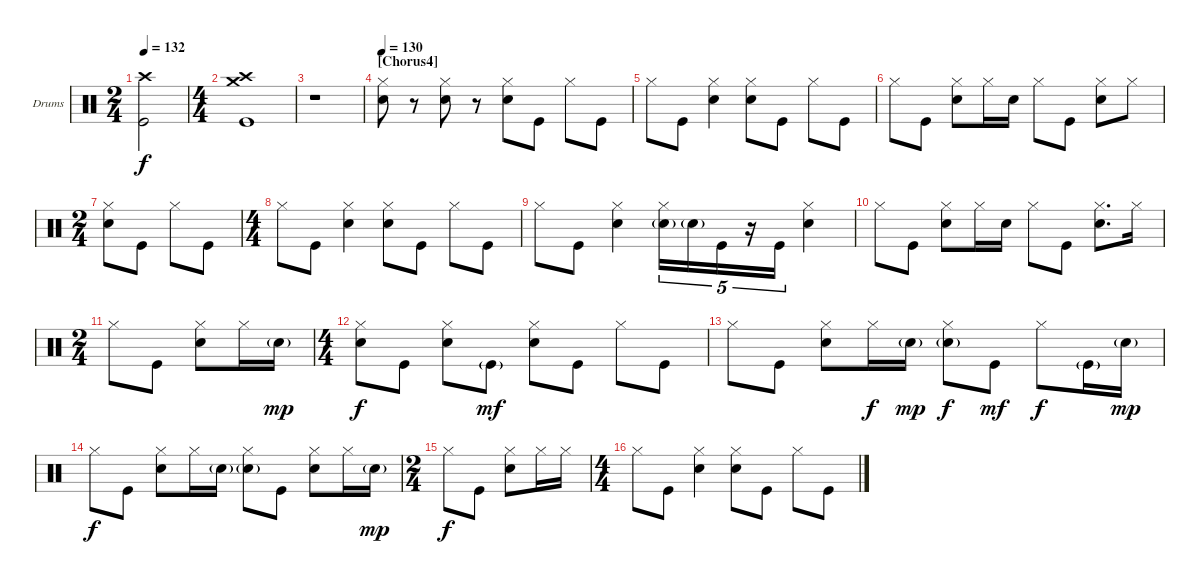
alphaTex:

\bracketExtendMode groupsimilarinstruments
\firstSystemTrackNameOrientation horizontal
\otherSystemsTrackNameOrientation horizontal
\track ("Drumkit" "Drums") {instrument percussion}
\staff {score}
\articulation defaults
\ts (2 4)
\tempo 132
\clef neutral
\ks aminor
("Kick (hit)" "Crash high (hit)").2{dy f} |
\ts (4 4)
("Kick (hit)" "Crash high (hit)" "Crash medium (hit)").1 |
r.1 |
\section ("" "[Chorus4] ")
\tempo 130
("Hi-Hat (closed)" "Snare (hit) 2").8 r.8 ("Hi-Hat (closed)" "Snare (hit) 2").8 r.8 ("Hi-Hat (closed)" "Snare (hit) 2").8 "Kick (hit)".8 "Hi-Hat (closed)".8 "Kick (hit)".8 |
"Hi-Hat (closed)".8 "Kick (hit)".8 ("Hi-Hat (closed)" "Snare (hit) 2").4 ("Hi-Hat (closed)" "Snare (hit) 2").8 "Kick (hit)".8 "Hi-Hat (closed)".8 "Kick (hit)".8 |
"Hi-Hat (closed)".8 "Kick (hit)".8 ("Hi-Hat (closed)" "Snare (hit) 2").8 "Hi-Hat (closed)".16 "Snare (hit) 2".16 "Hi-Hat (closed)".8 "Kick (hit)".8 ("Hi-Hat (closed)" "Snare (hit) 2").8 "Hi-Hat (closed)".8 |
\ts (2 4)
("Hi-Hat (closed)" "Snare (hit) 2").8 "Kick (hit)".8 "Hi-Hat (closed)".8 "Kick (hit)".8 |
\ts (4 4)
"Hi-Hat (closed)".8 "Kick (hit)".8 ("Hi-Hat (closed)" "Snare (hit) 2").4 ("Hi-Hat (closed)" "Snare (hit) 2").8 "Kick (hit)".8 "Hi-Hat (closed)".8 "Kick (hit)".8 |
"Hi-Hat (closed)".8 "Kick (hit)".8 ("Hi-Hat (closed)" "Snare (hit) 2").4 ("Hi-Hat (closed)" "Snare (hit) 2"{g}).16{tu (5 4)} "Snare (hit) 2"{g}.16{tu (5 4)} "Kick (hit)".16{tu (5 4)} r.16{tu (5 4)} "Kick (hit)".16{tu (5 4)} ("Hi-Hat (closed)" "Snare (hit) 2").4 |
"Hi-Hat (closed)".8 "Kick (hit)".8 ("Hi-Hat (closed)" "Snare (hit) 2").8 "Hi-Hat (closed)".16 "Snare (hit) 2".16 "Hi-Hat (closed)".8 "Kick (hit)".8 ("Hi-Hat (closed)" "Snare (hit) 2").8{d} "Hi-Hat (closed)".16 |
\ts (2 4)
"Hi-Hat (closed)".8 "Kick (hit)".8 ("Hi-Hat (closed)" "Snare (hit) 2").8 "Hi-Hat (closed)".16 "Snare (hit) 2"{g}.16{dy mp} |
\ts (4 4)
("Hi-Hat (closed)" "Snare (hit) 2").8{dy f} "Kick (hit)".8 ("Hi-Hat (closed)" "Snare (hit) 2").8 "Kick (hit)"{g}.8{dy mf} ("Hi-Hat (closed)" "Snare (hit) 2").8 "Kick (hit)".8 "Hi-Hat (closed)".8 "Kick (hit)".8 |
"Hi-Hat (closed)".8 "Kick (hit)".8 ("Hi-Hat (closed)" "Snare (hit) 2").8 "Hi-Hat (closed)".16{dy f} "Snare (hit) 2"{g}.16{dy mp} ("Hi-Hat (closed)" "Snare (hit) 2"{g}).8{dy f} "Kick (hit)".8{dy mf} "Hi-Hat (closed)".8{dy f} "Kick (hit)"{g}.16 "Snare (hit) 2"{g}.16{dy mp} |
"Hi-Hat (closed)".8{dy f} "Kick (hit)".8 ("Hi-Hat (closed)" "Snare (hit) 2").8 "Hi-Hat (closed)".16 "Snare (hit) 2"{g}.16 ("Hi-Hat (closed)" "Snare (hit) 2"{g}).8 "Kick (hit)".8 ("Hi-Hat (closed)" "Snare (hit) 2").8 "Hi-Hat (closed)".16 "Snare (hit) 2"{g}.16{dy mp} |
\ts (2 4)
"Hi-Hat (closed)".8{dy f} "Kick (hit)".8 ("Hi-Hat (closed)" "Snare (hit) 2").8 "Hi-Hat (closed)".16 "Hi-Hat (closed)".16 |
\ts (4 4)
"Hi-Hat (closed)".8 "Kick (hit)".8 ("Hi-Hat (closed)" "Snare (hit) 2").4 ("Hi-Hat (closed)" "Snare (hit) 2").8 "Kick (hit)".8 "Hi-Hat (closed)".8 "Kick (hit)".8
